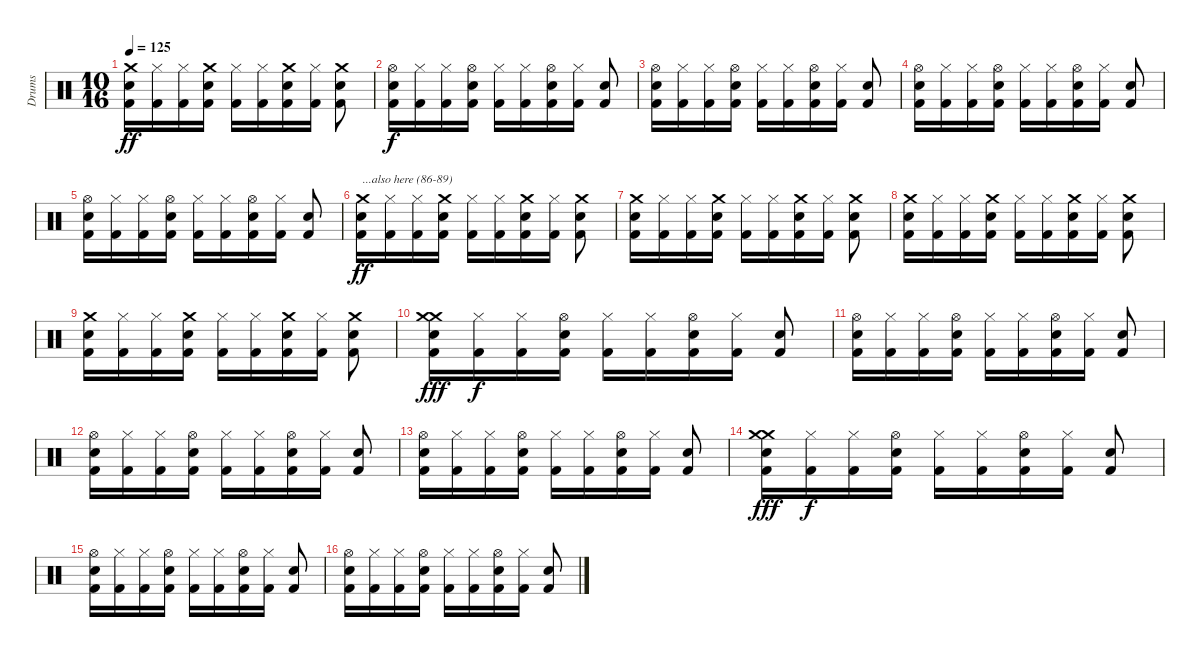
\track ("Drums" "Drums") {instrument percussion}
\staff {score}
\articulation defaults
\ts (10 16)
\tempo 125
\clef neutral
\ks c
("Kick (hit) 2" "Electric Snare (hit)" "Crash medium (hit)").16{dy ff} ("Kick (hit) 2" "Hi-Hat (closed)").16 ("Kick (hit) 2" "Hi-Hat (closed)").16 ("Kick (hit) 2" "Electric Snare (hit)" "Crash medium (hit)").16 ("Kick (hit) 2" "Hi-Hat (closed)").16 ("Kick (hit) 2" "Hi-Hat (closed)").16 ("Kick (hit) 2" "Electric Snare (hit)" "Crash medium (hit)").16 ("Kick (hit) 2" "Hi-Hat (closed)").16 ("Kick (hit) 2" "Electric Snare (hit)" "Crash medium (hit)").8 |
("Kick (hit) 2" "Electric Snare (hit)" "Hi-Hat (open)").16{dy f} ("Kick (hit) 2" "Hi-Hat (closed)").16 ("Kick (hit) 2" "Hi-Hat (closed)").16 ("Kick (hit) 2" "Electric Snare (hit)" "Hi-Hat (open)").16 ("Kick (hit) 2" "Hi-Hat (closed)").16 ("Kick (hit) 2" "Hi-Hat (closed)").16 ("Kick (hit) 2" "Electric Snare (hit)" "Hi-Hat (open)").16 ("Kick (hit) 2" "Hi-Hat (closed)").16 ("Kick (hit) 2" "Electric Snare (hit)").8 |
("Kick (hit) 2" "Electric Snare (hit)" "Hi-Hat (open)").16 ("Kick (hit) 2" "Hi-Hat (closed)").16 ("Kick (hit) 2" "Hi-Hat (closed)").16 ("Kick (hit) 2" "Electric Snare (hit)" "Hi-Hat (open)").16 ("Kick (hit) 2" "Hi-Hat (closed)").16 ("Kick (hit) 2" "Hi-Hat (closed)").16 ("Kick (hit) 2" "Electric Snare (hit)" "Hi-Hat (open)").16 ("Kick (hit) 2" "Hi-Hat (closed)").16 ("Kick (hit) 2" "Electric Snare (hit)").8 |
("Kick (hit) 2" "Electric Snare (hit)" "Hi-Hat (open)").16 ("Kick (hit) 2" "Hi-Hat (closed)").16 ("Kick (hit) 2" "Hi-Hat (closed)").16 ("Kick (hit) 2" "Electric Snare (hit)" "Hi-Hat (open)").16 ("Kick (hit) 2" "Hi-Hat (closed)").16 ("Kick (hit) 2" "Hi-Hat (closed)").16 ("Kick (hit) 2" "Electric Snare (hit)" "Hi-Hat (open)").16 ("Kick (hit) 2" "Hi-Hat (closed)").16 ("Kick (hit) 2" "Electric Snare (hit)").8 |
("Kick (hit) 2" "Electric Snare (hit)" "Hi-Hat (open)").16 ("Kick (hit) 2" "Hi-Hat (closed)").16 ("Kick (hit) 2" "Hi-Hat (closed)").16 ("Kick (hit) 2" "Electric Snare (hit)" "Hi-Hat (open)").16 ("Kick (hit) 2" "Hi-Hat (closed)").16 ("Kick (hit) 2" "Hi-Hat (closed)").16 ("Kick (hit) 2" "Electric Snare (hit)" "Hi-Hat (open)").16 ("Kick (hit) 2" "Hi-Hat (closed)").16 ("Kick (hit) 2" "Electric Snare (hit)").8 |
("Kick (hit) 2" "Electric Snare (hit)" "Crash medium (hit)").16{txt "...also here (86-89) " dy ff} ("Kick (hit) 2" "Hi-Hat (closed)").16 ("Kick (hit) 2" "Hi-Hat (closed)").16 ("Kick (hit) 2" "Electric Snare (hit)" "Crash medium (hit)").16 ("Kick (hit) 2" "Hi-Hat (closed)").16 ("Kick (hit) 2" "Hi-Hat (closed)").16 ("Kick (hit) 2" "Electric Snare (hit)" "Crash medium (hit)").16 ("Kick (hit) 2" "Hi-Hat (closed)").16 ("Kick (hit) 2" "Electric Snare (hit)" "Crash medium (hit)").8 |
("Kick (hit) 2" "Electric Snare (hit)" "Crash medium (hit)").16 ("Kick (hit) 2" "Hi-Hat (closed)").16 ("Kick (hit) 2" "Hi-Hat (closed)").16 ("Kick (hit) 2" "Electric Snare (hit)" "Crash medium (hit)").16 ("Kick (hit) 2" "Hi-Hat (closed)").16 ("Kick (hit) 2" "Hi-Hat (closed)").16 ("Kick (hit) 2" "Electric Snare (hit)" "Crash medium (hit)").16 ("Kick (hit) 2" "Hi-Hat (closed)").16 ("Kick (hit) 2" "Electric Snare (hit)" "Crash medium (hit)").8 |
("Kick (hit) 2" "Electric Snare (hit)" "Crash medium (hit)").16 ("Kick (hit) 2" "Hi-Hat (closed)").16 ("Kick (hit) 2" "Hi-Hat (closed)").16 ("Kick (hit) 2" "Electric Snare (hit)" "Crash medium (hit)").16 ("Kick (hit) 2" "Hi-Hat (closed)").16 ("Kick (hit) 2" "Hi-Hat (closed)").16 ("Kick (hit) 2" "Electric Snare (hit)" "Crash medium (hit)").16 ("Kick (hit) 2" "Hi-Hat (closed)").16 ("Kick (hit) 2" "Electric Snare (hit)" "Crash medium (hit)").8 |
("Kick (hit) 2" "Electric Snare (hit)" "Crash medium (hit)").16 ("Kick (hit) 2" "Hi-Hat (closed)").16 ("Kick (hit) 2" "Hi-Hat (closed)").16 ("Kick (hit) 2" "Electric Snare (hit)" "Crash medium (hit)").16 ("Kick (hit) 2" "Hi-Hat (closed)").16 ("Kick (hit) 2" "Hi-Hat (closed)").16 ("Kick (hit) 2" "Electric Snare (hit)" "Crash medium (hit)").16 ("Kick (hit) 2" "Hi-Hat (closed)").16 ("Kick (hit) 2" "Electric Snare (hit)" "Crash medium (hit)").8 |
("Kick (hit) 2" "Electric Snare (hit)" "Crash medium (hit)" "Crash medium (hit)").16{dy fff} ("Kick (hit) 2" "Hi-Hat (closed)").16{dy f} ("Kick (hit) 2" "Hi-Hat (closed)").16 ("Kick (hit) 2" "Electric Snare (hit)" "Hi-Hat (open)").16 ("Kick (hit) 2" "Hi-Hat (closed)").16 ("Kick (hit) 2" "Hi-Hat (closed)").16 ("Kick (hit) 2" "Electric Snare (hit)" "Hi-Hat (open)").16 ("Kick (hit) 2" "Hi-Hat (closed)").16 ("Kick (hit) 2" "Electric Snare (hit)").8 |
("Kick (hit) 2" "Electric Snare (hit)" "Hi-Hat (open)").16 ("Kick (hit) 2" "Hi-Hat (closed)").16 ("Kick (hit) 2" "Hi-Hat (closed)").16 ("Kick (hit) 2" "Electric Snare (hit)" "Hi-Hat (open)").16 ("Kick (hit) 2" "Hi-Hat (closed)").16 ("Kick (hit) 2" "Hi-Hat (closed)").16 ("Kick (hit) 2" "Electric Snare (hit)" "Hi-Hat (open)").16 ("Kick (hit) 2" "Hi-Hat (closed)").16 ("Kick (hit) 2" "Electric Snare (hit)").8 |
("Kick (hit) 2" "Electric Snare (hit)" "Hi-Hat (open)").16 ("Kick (hit) 2" "Hi-Hat (closed)").16 ("Kick (hit) 2" "Hi-Hat (closed)").16 ("Kick (hit) 2" "Electric Snare (hit)" "Hi-Hat (open)").16 ("Kick (hit) 2" "Hi-Hat (closed)").16 ("Kick (hit) 2" "Hi-Hat (closed)").16 ("Kick (hit) 2" "Electric Snare (hit)" "Hi-Hat (open)").16 ("Kick (hit) 2" "Hi-Hat (closed)").16 ("Kick (hit) 2" "Electric Snare (hit)").8 |
("Kick (hit) 2" "Electric Snare (hit)" "Hi-Hat (open)").16 ("Kick (hit) 2" "Hi-Hat (closed)").16 ("Kick (hit) 2" "Hi-Hat (closed)").16 ("Kick (hit) 2" "Electric Snare (hit)" "Hi-Hat (open)").16 ("Kick (hit) 2" "Hi-Hat (closed)").16 ("Kick (hit) 2" "Hi-Hat (closed)").16 ("Kick (hit) 2" "Electric Snare (hit)" "Hi-Hat (open)").16 ("Kick (hit) 2" "Hi-Hat (closed)").16 ("Kick (hit) 2" "Electric Snare (hit)").8 |
("Kick (hit) 2" "Electric Snare (hit)" "Crash medium (hit)" "Crash medium (hit)").16{dy fff} ("Kick (hit) 2" "Hi-Hat (closed)").16{dy f} ("Kick (hit) 2" "Hi-Hat (closed)").16 ("Kick (hit) 2" "Electric Snare (hit)" "Hi-Hat (open)").16 ("Kick (hit) 2" "Hi-Hat (closed)").16 ("Kick (hit) 2" "Hi-Hat (closed)").16 ("Kick (hit) 2" "Electric Snare (hit)" "Hi-Hat (open)").16 ("Kick (hit) 2" "Hi-Hat (closed)").16 ("Kick (hit) 2" "Electric Snare (hit)").8 |
("Kick (hit) 2" "Electric Snare (hit)" "Hi-Hat (open)").16 ("Kick (hit) 2" "Hi-Hat (closed)").16 ("Kick (hit) 2" "Hi-Hat (closed)").16 ("Kick (hit) 2" "Electric Snare (hit)" "Hi-Hat (open)").16 ("Kick (hit) 2" "Hi-Hat (closed)").16 ("Kick (hit) 2" "Hi-Hat (closed)").16 ("Kick (hit) 2" "Electric Snare (hit)" "Hi-Hat (open)").16 ("Kick (hit) 2" "Hi-Hat (closed)").16 ("Kick (hit) 2" "Electric Snare (hit)").8 |
("Kick (hit) 2" "Electric Snare (hit)" "Hi-Hat (open)").16 ("Kick (hit) 2" "Hi-Hat (closed)").16 ("Kick (hit) 2" "Hi-Hat (closed)").16 ("Kick (hit) 2" "Electric Snare (hit)" "Hi-Hat (open)").16 ("Kick (hit) 2" "Hi-Hat (closed)").16 ("Kick (hit) 2" "Hi-Hat (closed)").16 ("Kick (hit) 2" "Electric Snare (hit)" "Hi-Hat (open)").16 ("Kick (hit) 2" "Hi-Hat (closed)").16 ("Kick (hit) 2" "Electric Snare (hit)").8
